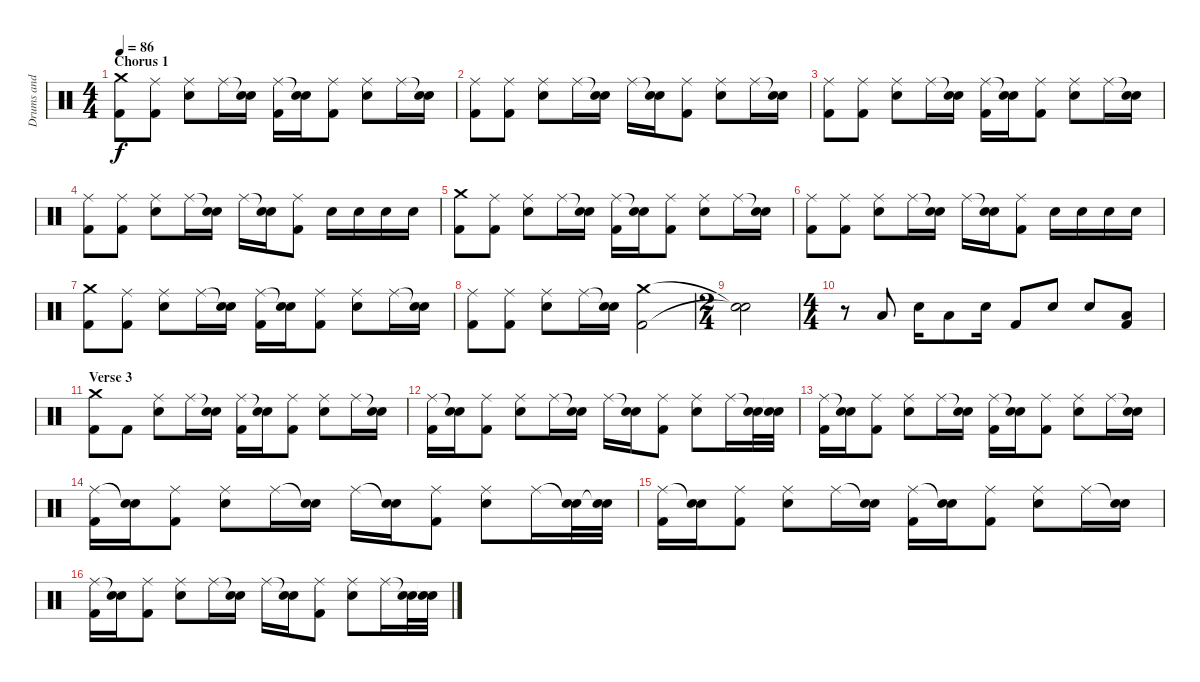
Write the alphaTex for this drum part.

\track ("Drums and Percussion" "Drums and ") {instrument percussion}
\staff {score}
\articulation defaults
\ts (4 4)
\section ("" "Chorus 1")
\tempo 86
\clef neutral
\ks c
("Crash medium (hit)" "Kick (hit) 2").8{dy f} ("Ride (middle)" "Kick (hit) 2").8 ("Ride (middle)" "Snare (hit) 2").8 "Ride (middle)".16 ("Snare (hit)"{t} "Snare (hit) 2").16 ("Ride (middle)" "Kick (hit) 2").16 ("Snare (hit)"{t} "Snare (hit) 2").16 ("Ride (middle)" "Kick (hit) 2").8 ("Ride (middle)" "Snare (hit) 2").8 "Ride (middle)".16 ("Snare (hit)"{t} "Snare (hit) 2").16 |
("Ride (middle)" "Kick (hit) 2").8 ("Ride (middle)" "Kick (hit) 2").8 ("Ride (middle)" "Snare (hit) 2").8 "Ride (middle)".16 ("Snare (hit)"{t} "Snare (hit) 2").16 "Ride (middle)".16 ("Snare (hit)"{t} "Snare (hit) 2").16 ("Ride (middle)" "Kick (hit) 2").8 ("Ride (middle)" "Snare (hit) 2").8 "Ride (middle)".16 ("Snare (hit)"{t} "Snare (hit) 2").16 |
("Ride (middle)" "Kick (hit) 2").8 ("Ride (middle)" "Kick (hit) 2").8 ("Ride (middle)" "Snare (hit) 2").8 "Ride (middle)".16 ("Snare (hit)"{t} "Snare (hit) 2").16 ("Ride (middle)" "Kick (hit) 2").16 ("Snare (hit)"{t} "Snare (hit) 2").16 ("Ride (middle)" "Kick (hit) 2").8 ("Ride (middle)" "Snare (hit) 2").8 "Ride (middle)".16 ("Snare (hit)"{t} "Snare (hit) 2").16 |
("Ride (middle)" "Kick (hit) 2").8 ("Ride (middle)" "Kick (hit) 2").8 ("Ride (middle)" "Snare (hit) 2").8 "Ride (middle)".16 ("Snare (hit)"{t} "Snare (hit) 2").16 "Ride (middle)".16 ("Snare (hit)"{t} "Snare (hit) 2").16 ("Ride (middle)" "Kick (hit) 2").8 "Snare (hit) 2".16 "Snare (hit) 2".16 "Snare (hit) 2".16 "Snare (hit) 2".16 |
("Crash medium (hit)" "Kick (hit) 2").8 ("Ride (middle)" "Kick (hit) 2").8 ("Ride (middle)" "Snare (hit) 2").8 "Ride (middle)".16 ("Snare (hit)"{t} "Snare (hit) 2").16 ("Ride (middle)" "Kick (hit) 2").16 ("Snare (hit)"{t} "Snare (hit) 2").16 ("Ride (middle)" "Kick (hit) 2").8 ("Ride (middle)" "Snare (hit) 2").8 "Ride (middle)".16 ("Snare (hit)"{t} "Snare (hit) 2").16 |
("Ride (middle)" "Kick (hit) 2").8 ("Ride (middle)" "Kick (hit) 2").8 ("Ride (middle)" "Snare (hit) 2").8 "Ride (middle)".16 ("Snare (hit)"{t} "Snare (hit) 2").16 "Ride (middle)".16 ("Snare (hit)"{t} "Snare (hit) 2").16 ("Ride (middle)" "Kick (hit) 2").8 "Snare (hit) 2".16 "Snare (hit) 2".16 "Snare (hit) 2".16 "Snare (hit) 2".16 |
("Crash medium (hit)" "Kick (hit) 2").8 ("Ride (middle)" "Kick (hit) 2").8 ("Ride (middle)" "Snare (hit) 2").8 "Ride (middle)".16 ("Snare (hit)"{t} "Snare (hit) 2").16 ("Ride (middle)" "Kick (hit) 2").16 ("Snare (hit)"{t} "Snare (hit) 2").16 ("Ride (middle)" "Kick (hit) 2").8 ("Ride (middle)" "Snare (hit) 2").8 "Ride (middle)".16 ("Snare (hit)"{t} "Snare (hit) 2").16 |
("Ride (middle)" "Kick (hit) 2").8 ("Ride (middle)" "Kick (hit) 2").8 ("Ride (middle)" "Snare (hit) 2").8 "Ride (middle)".16 ("Snare (hit)"{t} "Snare (hit) 2").16 ("Crash medium (hit)" "Kick (hit) 2").2 |
\ts (2 4)
("Snare (hit)"{t} "Snare (hit)"{t}).2 |
\ts (4 4)
r.8 "Low Tom (hit)".8 "Snare (hit) 2".16 "Low Tom (hit)".8 "Snare (hit) 2".16 "Kick (hit) 2".8 "Snare (hit) 2".8 "Snare (hit) 2".8 ("Low Tom (hit)" "Kick (hit) 2").8 |
\section ("" "Verse 3")
("Crash medium (hit)" "Kick (hit) 2").8 "Kick (hit) 2".8 ("Ride (middle)" "Snare (hit) 2").8 "Ride (middle)".16 ("Snare (hit)"{t} "Snare (hit) 2").16 ("Ride (middle)" "Kick (hit) 2").16 ("Snare (hit)"{t} "Snare (hit) 2").16 ("Ride (middle)" "Kick (hit) 2").8 ("Ride (middle)" "Snare (hit) 2").8 "Ride (middle)".16 ("Snare (hit)"{t} "Snare (hit) 2").16 |
("Ride (middle)" "Kick (hit) 2").16 ("Snare (hit)"{t} "Snare (hit) 2").16 ("Ride (middle)" "Kick (hit) 2").8 ("Ride (middle)" "Snare (hit) 2").8 "Ride (middle)".16 ("Snare (hit)"{t} "Snare (hit) 2").16 "Ride (middle)".16 ("Snare (hit)"{t} "Snare (hit) 2").16 ("Ride (middle)" "Kick (hit) 2").8 ("Ride (middle)" "Snare (hit) 2").8 "Ride (middle)".16 ("Snare (hit)"{t} "Snare (hit) 2").32 ("Snare (hit)"{t} "Snare (hit) 2").32 |
("Ride (middle)" "Kick (hit) 2").16 ("Snare (hit)"{t} "Snare (hit) 2").16 ("Ride (middle)" "Kick (hit) 2").8 ("Ride (middle)" "Snare (hit) 2").8 "Ride (middle)".16 ("Snare (hit)"{t} "Snare (hit) 2").16 ("Ride (middle)" "Kick (hit) 2").16 ("Snare (hit)"{t} "Snare (hit) 2").16 ("Ride (middle)" "Kick (hit) 2").8 ("Ride (middle)" "Snare (hit) 2").8 "Ride (middle)".16 ("Snare (hit)"{t} "Snare (hit) 2").16 |
("Ride (middle)" "Kick (hit) 2").16 ("Snare (hit)"{t} "Snare (hit) 2").16 ("Ride (middle)" "Kick (hit) 2").8 ("Ride (middle)" "Snare (hit) 2").8 "Ride (middle)".16 ("Snare (hit)"{t} "Snare (hit) 2").16 "Ride (middle)".16 ("Snare (hit)"{t} "Snare (hit) 2").16 ("Ride (middle)" "Kick (hit) 2").8 ("Ride (middle)" "Snare (hit) 2").8 "Ride (middle)".16 ("Snare (hit)"{t} "Snare (hit) 2").32 ("Snare (hit)"{t} "Snare (hit) 2").32 |
("Ride (middle)" "Kick (hit) 2").16 ("Snare (hit)"{t} "Snare (hit) 2").16 ("Ride (middle)" "Kick (hit) 2").8 ("Ride (middle)" "Snare (hit) 2").8 "Ride (middle)".16 ("Snare (hit)"{t} "Snare (hit) 2").16 ("Ride (middle)" "Kick (hit) 2").16 ("Snare (hit)"{t} "Snare (hit) 2").16 ("Ride (middle)" "Kick (hit) 2").8 ("Ride (middle)" "Snare (hit) 2").8 "Ride (middle)".16 ("Snare (hit)"{t} "Snare (hit) 2").16 |
("Ride (middle)" "Kick (hit) 2").16 ("Snare (hit)"{t} "Snare (hit) 2").16 ("Ride (middle)" "Kick (hit) 2").8 ("Ride (middle)" "Snare (hit) 2").8 "Ride (middle)".16 ("Snare (hit)"{t} "Snare (hit) 2").16 "Ride (middle)".16 ("Snare (hit)"{t} "Snare (hit) 2").16 ("Ride (middle)" "Kick (hit) 2").8 ("Ride (middle)" "Snare (hit) 2").8 "Ride (middle)".16 ("Snare (hit)"{t} "Snare (hit) 2").32 ("Snare (hit)"{t} "Snare (hit) 2").32
